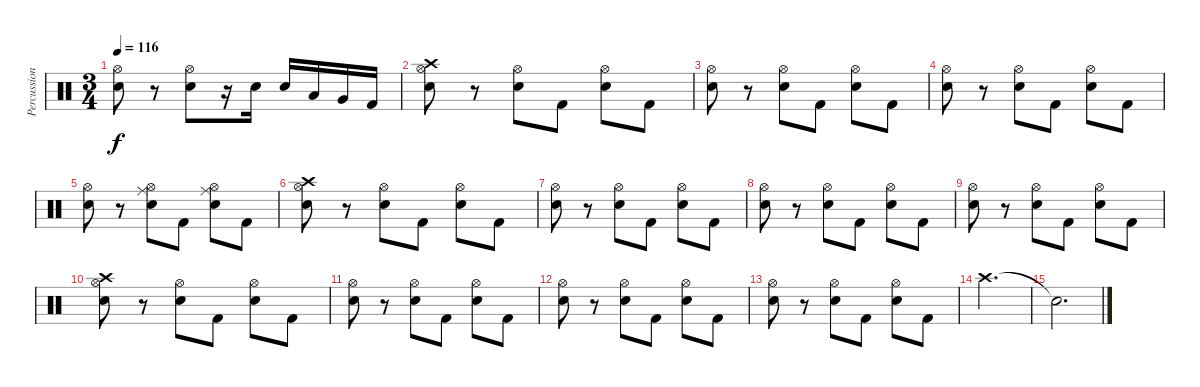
\track ("Percussion" "Percussion") {instrument percussion}
\staff {score}
\articulation defaults
\ts (3 4)
\tempo 116
\clef neutral
\ks c
("Hi-Hat (open)" "Electric Snare (hit)").8{dy f} r.8 ("Hi-Hat (open)" "Electric Snare (hit)").8 r.16 "Electric Snare (hit)".16 "Electric Snare (hit)".16 "Low Tom (hit)".16 "Very Low Tom (hit)".16 "Kick (hit) 2".16 |
("Crash high (hit)" "Hi-Hat (open)" "Electric Snare (hit)").8 r.8 ("Hi-Hat (open)" "Electric Snare (hit)").8 "Kick (hit) 2".8 ("Hi-Hat (open)" "Electric Snare (hit)").8 "Kick (hit) 2".8 |
("Hi-Hat (open)" "Electric Snare (hit)").8 r.8 ("Hi-Hat (open)" "Electric Snare (hit)").8 "Kick (hit) 2".8 ("Hi-Hat (open)" "Electric Snare (hit)").8 "Kick (hit) 2".8 |
("Hi-Hat (open)" "Electric Snare (hit)").8 r.8 ("Hi-Hat (open)" "Electric Snare (hit)").8 "Kick (hit) 2".8 ("Hi-Hat (open)" "Electric Snare (hit)").8 "Kick (hit) 2".8 |
("Hi-Hat (open)" "Electric Snare (hit)").8 r.8 ("Ride (middle)" "Hi-Hat (open)" "Electric Snare (hit)").8 "Kick (hit) 2".8 ("Ride (middle)" "Hi-Hat (open)" "Electric Snare (hit)").8 "Kick (hit) 2".8 |
("Crash high (hit)" "Hi-Hat (open)" "Electric Snare (hit)").8 r.8 ("Hi-Hat (open)" "Electric Snare (hit)").8 "Kick (hit) 2".8 ("Hi-Hat (open)" "Electric Snare (hit)").8 "Kick (hit) 2".8 |
("Hi-Hat (open)" "Electric Snare (hit)").8 r.8 ("Hi-Hat (open)" "Electric Snare (hit)").8 "Kick (hit) 2".8 ("Hi-Hat (open)" "Electric Snare (hit)").8 "Kick (hit) 2".8 |
("Hi-Hat (open)" "Electric Snare (hit)").8 r.8 ("Hi-Hat (open)" "Electric Snare (hit)").8 "Kick (hit) 2".8 ("Hi-Hat (open)" "Electric Snare (hit)").8 "Kick (hit) 2".8 |
("Hi-Hat (open)" "Electric Snare (hit)").8 r.8 ("Hi-Hat (open)" "Electric Snare (hit)").8 "Kick (hit) 2".8 ("Hi-Hat (open)" "Electric Snare (hit)").8 "Kick (hit) 2".8 |
("Crash high (hit)" "Hi-Hat (open)" "Electric Snare (hit)").8 r.8 ("Hi-Hat (open)" "Electric Snare (hit)").8 "Kick (hit) 2".8 ("Hi-Hat (open)" "Electric Snare (hit)").8 "Kick (hit) 2".8 |
("Hi-Hat (open)" "Electric Snare (hit)").8 r.8 ("Hi-Hat (open)" "Electric Snare (hit)").8 "Kick (hit) 2".8 ("Hi-Hat (open)" "Electric Snare (hit)").8 "Kick (hit) 2".8 |
("Hi-Hat (open)" "Electric Snare (hit)").8 r.8 ("Hi-Hat (open)" "Electric Snare (hit)").8 "Kick (hit) 2".8 ("Hi-Hat (open)" "Electric Snare (hit)").8 "Kick (hit) 2".8 |
("Hi-Hat (open)" "Electric Snare (hit)").8 r.8 ("Hi-Hat (open)" "Electric Snare (hit)").8 "Kick (hit) 2".8 ("Hi-Hat (open)" "Electric Snare (hit)").8 "Kick (hit) 2".8 |
"Crash high (hit)".2{d volume 14} |
"Snare (hit)"{t}.2{d}
